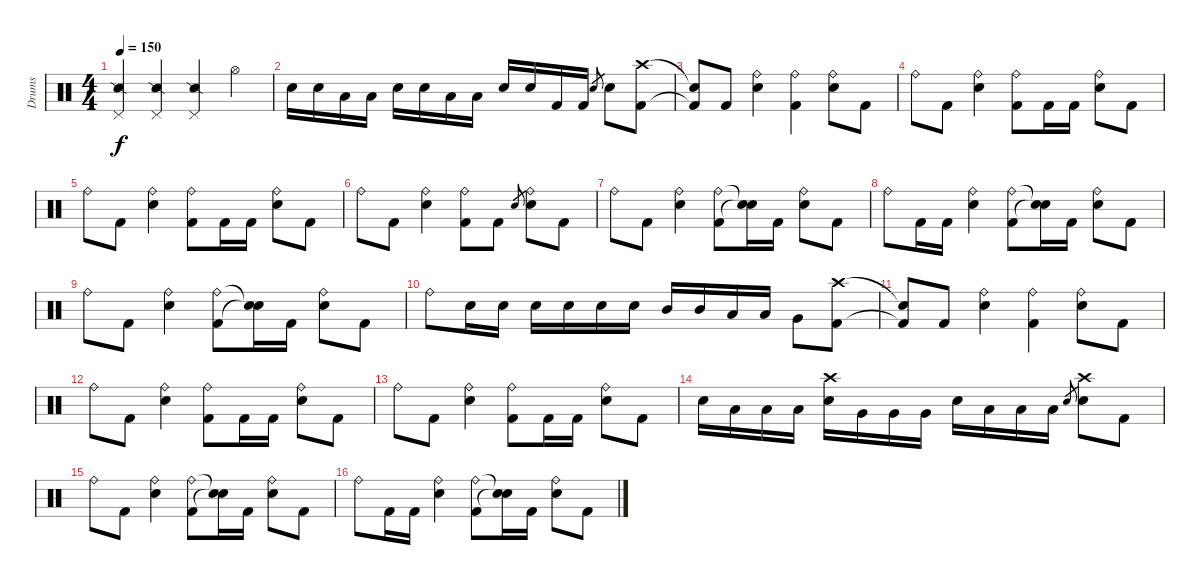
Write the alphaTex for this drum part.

\track ("Drums" "Drums") {instrument percussion}
\staff {score}
\articulation defaults
\ts (4 4)
\tempo 150
\clef neutral
\ks c
("Pedal Hi-Hat (hit)" "Snare (side stick) 2").4{dy f} ("Pedal Hi-Hat (hit)" "Snare (side stick) 2").4 ("Pedal Hi-Hat (hit)" "Snare (side stick) 2").4 "Hi-Hat (open)".4 |
"Electric Snare (hit)".16 "Electric Snare (hit)".16 "Low Tom (hit)".16 "Low Tom (hit)".16 "Electric Snare (hit)".16 "Electric Snare (hit)".16 "Low Tom (hit)".16 "Low Tom (hit)".16 "Electric Snare (hit)".16 "Electric Snare (hit)".16 "Kick (hit) 2".16 "Kick (hit) 2".16 "Electric Snare (hit)".8{gr} "Electric Snare (hit)".8 ("Crash high (hit)" "Kick (hit) 2").8 |
("Snare (hit)"{t} "Kick (hit) 2"{t}).8 "Kick (hit) 2".8 ("Ride (bell)" "Electric Snare (hit)").4 ("Ride (bell)" "Kick (hit) 2").4 ("Ride (bell)" "Electric Snare (hit)").8 "Kick (hit) 2".8 |
"Ride (bell)".8 "Kick (hit) 2".8 ("Ride (bell)" "Electric Snare (hit)").4 ("Ride (bell)" "Kick (hit) 2").8 "Kick (hit) 2".16 "Kick (hit) 2".16 ("Ride (bell)" "Electric Snare (hit)").8 "Kick (hit) 2".8 |
"Ride (bell)".8 "Kick (hit) 2".8 ("Ride (bell)" "Electric Snare (hit)").4 ("Ride (bell)" "Kick (hit) 2").8 "Kick (hit) 2".16 "Kick (hit) 2".16 ("Ride (bell)" "Electric Snare (hit)").8 "Kick (hit) 2".8 |
"Ride (bell)".8 "Kick (hit) 2".8 ("Ride (bell)" "Electric Snare (hit)").4 ("Ride (bell)" "Kick (hit) 2").8 "Kick (hit) 2".8 "Electric Snare (hit)".8{gr} ("Ride (bell)" "Electric Snare (hit)").8 "Kick (hit) 2".8 |
"Ride (bell)".8 "Kick (hit) 2".8 ("Ride (bell)" "Electric Snare (hit)").4 ("Ride (bell)" "Kick (hit) 2").8 ("Snare (hit)"{t} "Snare (hit)"{t}).16 "Kick (hit) 2".16 ("Ride (bell)" "Electric Snare (hit)").8 "Kick (hit) 2".8 |
"Ride (bell)".8 "Kick (hit) 2".16 "Kick (hit) 2".16 ("Ride (bell)" "Electric Snare (hit)").4 ("Ride (bell)" "Kick (hit) 2").8 ("Snare (hit)"{t} "Snare (hit)"{t}).16 "Kick (hit) 2".16 ("Ride (bell)" "Electric Snare (hit)").8 "Kick (hit) 2".8 |
"Ride (bell)".8 "Kick (hit) 2".8 ("Ride (bell)" "Electric Snare (hit)").4 ("Ride (bell)" "Kick (hit) 2").8 ("Snare (hit)"{t} "Snare (hit)"{t}).16 "Kick (hit) 2".16 ("Ride (bell)" "Electric Snare (hit)").8 "Kick (hit) 2".8 |
"Ride (bell)".8 "Electric Snare (hit)".16 "Electric Snare (hit)".16 "Electric Snare (hit)".16 "Electric Snare (hit)".16 "Electric Snare (hit)".16 "Electric Snare (hit)".16 "Mid Tom (hit)".16 "Mid Tom (hit)".16 "Low Tom (hit)".16 "Low Tom (hit)".16 "Very Low Tom (hit)".8 ("Crash high (hit)" "Kick (hit) 2").8 |
("Snare (hit)"{t} "Kick (hit) 2"{t}).8 "Kick (hit) 2".8 ("Ride (bell)" "Electric Snare (hit)").4 ("Ride (bell)" "Kick (hit) 2").4 ("Ride (bell)" "Electric Snare (hit)").8 "Kick (hit) 2".8 |
"Ride (bell)".8 "Kick (hit) 2".8 ("Ride (bell)" "Electric Snare (hit)").4 ("Ride (bell)" "Kick (hit) 2").8 "Kick (hit) 2".16 "Kick (hit) 2".16 ("Ride (bell)" "Electric Snare (hit)").8 "Kick (hit) 2".8 |
"Ride (bell)".8 "Kick (hit) 2".8 ("Ride (bell)" "Electric Snare (hit)").4 ("Ride (bell)" "Kick (hit) 2").8 "Kick (hit) 2".16 "Kick (hit) 2".16 ("Ride (bell)" "Electric Snare (hit)").8 "Kick (hit) 2".8 |
"Electric Snare (hit)".16 "Low Tom (hit)".16 "Low Tom (hit)".16 "Low Tom (hit)".16 ("Crash high (hit)" "Electric Snare (hit)").16 "Very Low Tom (hit)".16 "Very Low Tom (hit)".16 "Very Low Tom (hit)".16 "Electric Snare (hit)".16 "Low Tom (hit)".16 "Low Tom (hit)".16 "Low Tom (hit)".16 "Electric Snare (hit)".8{gr} ("Crash high (hit)" "Electric Snare (hit)").8 "Kick (hit) 2".8 |
"Ride (bell)".8 "Kick (hit) 2".8 ("Ride (bell)" "Electric Snare (hit)").4 ("Ride (bell)" "Kick (hit) 2").8 ("Snare (hit)"{t} "Snare (hit)"{t}).16 "Kick (hit) 2".16 ("Ride (bell)" "Electric Snare (hit)").8 "Kick (hit) 2".8 |
"Ride (bell)".8 "Kick (hit) 2".16 "Kick (hit) 2".16 ("Ride (bell)" "Electric Snare (hit)").4 ("Ride (bell)" "Kick (hit) 2").8 ("Snare (hit)"{t} "Snare (hit)"{t}).16 "Kick (hit) 2".16 ("Ride (bell)" "Electric Snare (hit)").8 "Kick (hit) 2".8
